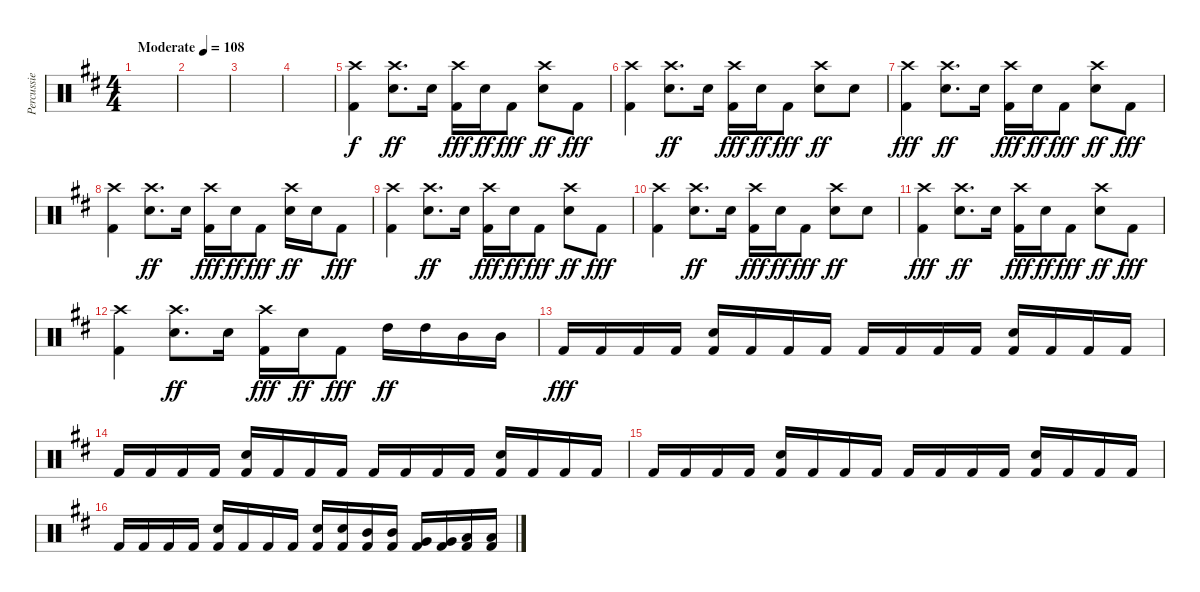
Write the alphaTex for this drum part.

\track ("Percussie" "Percussie") {instrument percussion}
\staff {score}
\articulation defaults
\ts (4 4)
\tempo (108 "Moderate")
\clef neutral
\ks d
|
|
|
|
("Crash high (hit)" "Kick (hit) 2").4 ("Crash high (hit)" "Snare (hit) 2").8{d dy ff} "Snare (hit) 2".16 ("Crash high (hit)" "Kick (hit) 2").16{dy fff} "Snare (hit) 2".16{dy ff} "Kick (hit) 2".8{dy fff} ("Crash high (hit)" "Snare (hit) 2").8{dy ff} "Kick (hit) 2".8{dy fff} |
("Crash high (hit)" "Kick (hit) 2").4 ("Crash high (hit)" "Snare (hit) 2").8{d dy ff} "Snare (hit) 2".16 ("Crash high (hit)" "Kick (hit) 2").16{dy fff} "Snare (hit) 2".16{dy ff} "Kick (hit) 2".8{dy fff} ("Crash high (hit)" "Snare (hit) 2").8{dy ff} "Snare (hit) 2".8 |
("Crash high (hit)" "Kick (hit) 2").4{dy fff} ("Crash high (hit)" "Snare (hit) 2").8{d dy ff} "Snare (hit) 2".16 ("Crash high (hit)" "Kick (hit) 2").16{dy fff} "Snare (hit) 2".16{dy ff} "Kick (hit) 2".8{dy fff} ("Crash high (hit)" "Snare (hit) 2").8{dy ff} "Kick (hit) 2".8{dy fff} |
("Crash high (hit)" "Kick (hit) 2").4 ("Crash high (hit)" "Snare (hit) 2").8{d dy ff} "Snare (hit) 2".16 ("Crash high (hit)" "Kick (hit) 2").16{dy fff} "Snare (hit) 2".16{dy ff} "Kick (hit) 2".8{dy fff} ("Crash high (hit)" "Snare (hit) 2").16{dy ff} "Snare (hit) 2".16 "Kick (hit) 2".8{dy fff} |
("Crash high (hit)" "Kick (hit) 2").4 ("Crash high (hit)" "Snare (hit) 2").8{d dy ff} "Snare (hit) 2".16 ("Crash high (hit)" "Kick (hit) 2").16{dy fff} "Snare (hit) 2".16{dy ff} "Kick (hit) 2".8{dy fff} ("Crash high (hit)" "Snare (hit) 2").8{dy ff} "Kick (hit) 2".8{dy fff} |
("Crash high (hit)" "Kick (hit) 2").4 ("Crash high (hit)" "Snare (hit) 2").8{d dy ff} "Snare (hit) 2".16 ("Crash high (hit)" "Kick (hit) 2").16{dy fff} "Snare (hit) 2".16{dy ff} "Kick (hit) 2".8{dy fff} ("Crash high (hit)" "Snare (hit) 2").8{dy ff} "Snare (hit) 2".8 |
("Crash high (hit)" "Kick (hit) 2").4{dy fff} ("Crash high (hit)" "Snare (hit) 2").8{d dy ff} "Snare (hit) 2".16 ("Crash high (hit)" "Kick (hit) 2").16{dy fff} "Snare (hit) 2".16{dy ff} "Kick (hit) 2".8{dy fff} ("Crash high (hit)" "Snare (hit) 2").8{dy ff} "Kick (hit) 2".8{dy fff} |
("Crash high (hit)" "Kick (hit) 2").4 ("Crash high (hit)" "Snare (hit) 2").8{d dy ff} "Snare (hit) 2".16 ("Crash high (hit)" "Kick (hit) 2").16{dy fff} "Snare (hit) 2".16{dy ff} "Kick (hit) 2".8{dy fff} "High Tom (hit)".16{dy ff} "High Tom (hit)".16 "Mid Tom (hit)".16 "Mid Tom (hit)".16 |
"Kick (hit) 2".16{dy fff} "Kick (hit) 2".16 "Kick (hit) 2".16 "Kick (hit) 2".16 ("Snare (hit) 2" "Kick (hit) 2").16 "Kick (hit) 2".16 "Kick (hit) 2".16 "Kick (hit) 2".16 "Kick (hit) 2".16 "Kick (hit) 2".16 "Kick (hit) 2".16 "Kick (hit) 2".16 ("Snare (hit) 2" "Kick (hit) 2").16 "Kick (hit) 2".16 "Kick (hit) 2".16 "Kick (hit) 2".16 |
"Kick (hit) 2".16 "Kick (hit) 2".16 "Kick (hit) 2".16 "Kick (hit) 2".16 ("Snare (hit) 2" "Kick (hit) 2").16 "Kick (hit) 2".16 "Kick (hit) 2".16 "Kick (hit) 2".16 "Kick (hit) 2".16 "Kick (hit) 2".16 "Kick (hit) 2".16 "Kick (hit) 2".16 ("Snare (hit) 2" "Kick (hit) 2").16 "Kick (hit) 2".16 "Kick (hit) 2".16 "Kick (hit) 2".16 |
"Kick (hit) 2".16 "Kick (hit) 2".16 "Kick (hit) 2".16 "Kick (hit) 2".16 ("Snare (hit) 2" "Kick (hit) 2").16 "Kick (hit) 2".16 "Kick (hit) 2".16 "Kick (hit) 2".16 "Kick (hit) 2".16 "Kick (hit) 2".16 "Kick (hit) 2".16 "Kick (hit) 2".16 ("Snare (hit) 2" "Kick (hit) 2").16 "Kick (hit) 2".16 "Kick (hit) 2".16 "Kick (hit) 2".16 |
"Kick (hit) 2".16 "Kick (hit) 2".16 "Kick (hit) 2".16 "Kick (hit) 2".16 ("Snare (hit) 2" "Kick (hit) 2").16 "Kick (hit) 2".16 "Kick (hit) 2".16 "Kick (hit) 2".16 ("Snare (hit) 2" "Kick (hit) 2").16 ("Snare (hit) 2" "Kick (hit) 2").16 ("Mid Tom (hit)" "Kick (hit) 2").16 ("Mid Tom (hit)" "Kick (hit) 2").16 ("Very Low Tom (hit)" "Kick (hit) 2").16 ("Very Low Tom (hit)" "Kick (hit) 2").16 ("Low Floor Tom (hit)" "Kick (hit) 2").16 ("Low Floor Tom (hit)" "Kick (hit) 2").16
